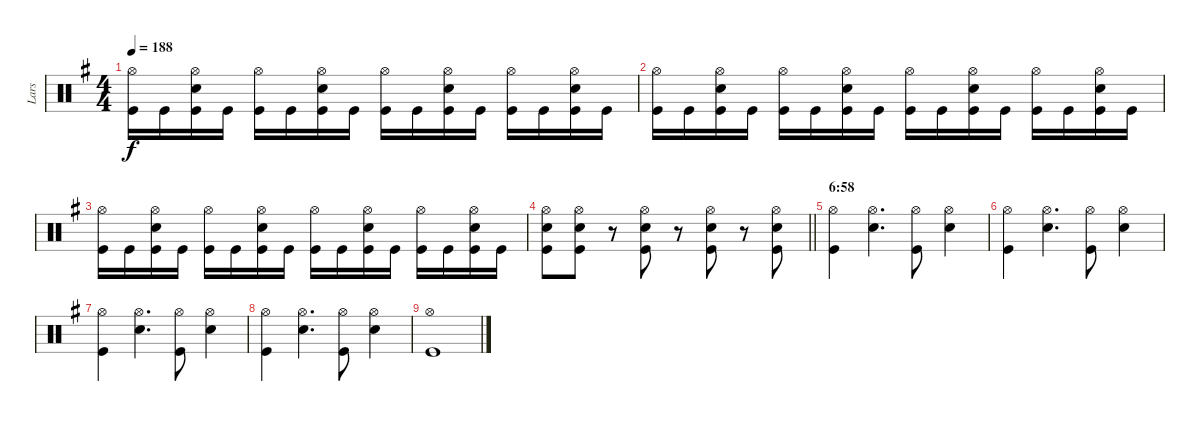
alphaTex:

\track ("Lars" "Lars") {instrument percussion}
\staff {score}
\articulation defaults
\ts (4 4)
\tempo 188
\clef neutral
\ks eminor
("Hi-Hat (open)" "Kick (hit)").16{dy f} "Kick (hit)".16 ("Hi-Hat (open)" "Kick (hit)" "Snare (hit) 2").16 "Kick (hit)".16 ("Hi-Hat (open)" "Kick (hit)").16 "Kick (hit)".16 ("Kick (hit)" "Hi-Hat (open)" "Snare (hit) 2").16 "Kick (hit)".16 ("Kick (hit)" "Hi-Hat (open)").16 "Kick (hit)".16 ("Kick (hit)" "Hi-Hat (open)" "Snare (hit) 2").16 "Kick (hit)".16 ("Kick (hit)" "Hi-Hat (open)").16 "Kick (hit)".16 ("Kick (hit)" "Hi-Hat (open)" "Snare (hit) 2").16 "Kick (hit)".16 |
("Hi-Hat (open)" "Kick (hit)").16 "Kick (hit)".16 ("Hi-Hat (open)" "Kick (hit)" "Snare (hit) 2").16 "Kick (hit)".16 ("Hi-Hat (open)" "Kick (hit)").16 "Kick (hit)".16 ("Kick (hit)" "Hi-Hat (open)" "Snare (hit) 2").16 "Kick (hit)".16 ("Kick (hit)" "Hi-Hat (open)").16 "Kick (hit)".16 ("Kick (hit)" "Hi-Hat (open)" "Snare (hit) 2").16 "Kick (hit)".16 ("Kick (hit)" "Hi-Hat (open)").16 "Kick (hit)".16 ("Kick (hit)" "Hi-Hat (open)" "Snare (hit) 2").16 "Kick (hit)".16 |
("Hi-Hat (open)" "Kick (hit)").16 "Kick (hit)".16 ("Hi-Hat (open)" "Kick (hit)" "Snare (hit) 2").16 "Kick (hit)".16 ("Hi-Hat (open)" "Kick (hit)").16 "Kick (hit)".16 ("Kick (hit)" "Hi-Hat (open)" "Snare (hit) 2").16 "Kick (hit)".16 ("Kick (hit)" "Hi-Hat (open)").16 "Kick (hit)".16 ("Kick (hit)" "Hi-Hat (open)" "Snare (hit) 2").16 "Kick (hit)".16 ("Kick (hit)" "Hi-Hat (open)").16 "Kick (hit)".16 ("Kick (hit)" "Hi-Hat (open)" "Snare (hit) 2").16 "Kick (hit)".16 |
\barLineRight lightlight
("Hi-Hat (open)" "Kick (hit)" "Snare (hit) 2").8 ("Kick (hit)" "Hi-Hat (open)" "Snare (hit) 2").8 r.8 ("Kick (hit)" "Snare (hit) 2" "Hi-Hat (open)").8 r.8 ("Kick (hit)" "Snare (hit) 2" "Hi-Hat (open)").8 r.8 ("Kick (hit)" "Snare (hit) 2" "Hi-Hat (open)").8 |
\section ("" "6:58")
("Hi-Hat (open)" "Kick (hit)").4 ("Hi-Hat (open)" "Snare (hit) 2").4{d} ("Hi-Hat (open)" "Kick (hit)").8 ("Hi-Hat (open)" "Snare (hit) 2").4 |
("Hi-Hat (open)" "Kick (hit)").4 ("Hi-Hat (open)" "Snare (hit) 2").4{d} ("Hi-Hat (open)" "Kick (hit)").8 ("Hi-Hat (open)" "Snare (hit) 2").4 |
("Hi-Hat (open)" "Kick (hit)").4 ("Hi-Hat (open)" "Snare (hit) 2").4{d} ("Hi-Hat (open)" "Kick (hit)").8 ("Hi-Hat (open)" "Snare (hit) 2").4 |
("Hi-Hat (open)" "Kick (hit)").4 ("Hi-Hat (open)" "Snare (hit) 2").4{d} ("Hi-Hat (open)" "Kick (hit)").8 ("Hi-Hat (open)" "Snare (hit) 2").4 |
("Hi-Hat (open)" "Kick (hit)").1
